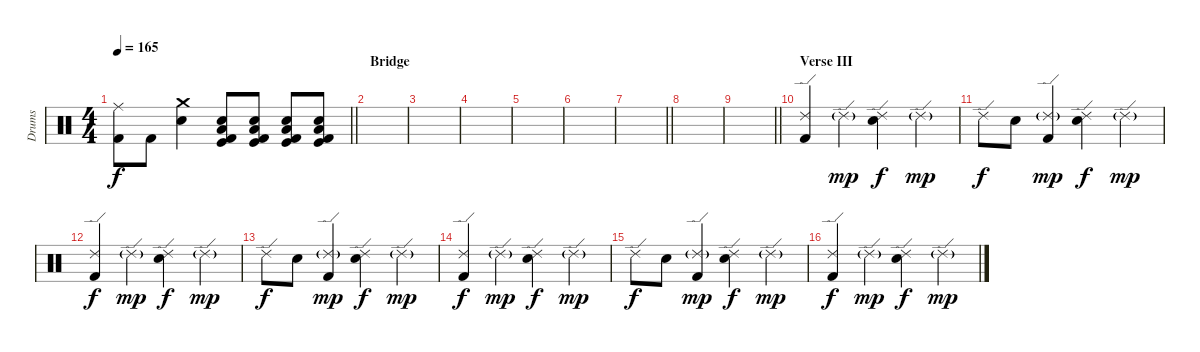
\track ("Drums" "Drums") {instrument percussion}
\staff {score}
\articulation defaults
\ts (4 4)
\tempo 165
\clef neutral
\barLineRight lightlight
\ks c
("Ride (middle)" "Kick (hit) 2").8{dy f} "Kick (hit) 2".8 ("Crash medium (hit)" "Electric Snare (hit)").4 ("Low Floor Tom (hit)" "Electric Snare (hit)" "Kick (hit)" "Kick (hit) 2").8 ("Low Floor Tom (hit)" "Electric Snare (hit)" "Kick (hit)" "Kick (hit) 2").8 ("Low Floor Tom (hit)" "Electric Snare (hit)" "Kick (hit)" "Kick (hit) 2").8 ("Low Floor Tom (hit)" "Electric Snare (hit)" "Kick (hit)" "Kick (hit) 2").8 |
\section ("" "Bridge")
|
|
|
|
|
\barLineRight lightlight
|
|
\barLineRight lightlight
|
\section ("" "Verse III")
("Ride (edge) 2" "Kick (hit) 2").4 "Ride (edge) 2"{g}.4{dy mp} ("Ride (edge) 2" "Electric Snare (hit)").4{dy f} "Ride (edge) 2"{g}.4{dy mp} |
"Ride (edge) 2".8{dy f} "Electric Snare (hit)".8 ("Ride (edge) 2"{g} "Kick (hit) 2").4{dy mp} ("Ride (edge) 2" "Electric Snare (hit)").4{dy f} "Ride (edge) 2"{g}.4{dy mp} |
("Ride (edge) 2" "Kick (hit) 2").4{dy f} "Ride (edge) 2"{g}.4{dy mp} ("Ride (edge) 2" "Electric Snare (hit)").4{dy f} "Ride (edge) 2"{g}.4{dy mp} |
"Ride (edge) 2".8{dy f} "Electric Snare (hit)".8 ("Ride (edge) 2"{g} "Kick (hit) 2").4{dy mp} ("Ride (edge) 2" "Electric Snare (hit)").4{dy f} "Ride (edge) 2"{g}.4{dy mp} |
("Ride (edge) 2" "Kick (hit) 2").4{dy f} "Ride (edge) 2"{g}.4{dy mp} ("Ride (edge) 2" "Electric Snare (hit)").4{dy f} "Ride (edge) 2"{g}.4{dy mp} |
"Ride (edge) 2".8{dy f} "Electric Snare (hit)".8 ("Ride (edge) 2"{g} "Kick (hit) 2").4{dy mp} ("Ride (edge) 2" "Electric Snare (hit)").4{dy f} "Ride (edge) 2"{g}.4{dy mp} |
("Ride (edge) 2" "Kick (hit) 2").4{dy f} "Ride (edge) 2"{g}.4{dy mp} ("Ride (edge) 2" "Electric Snare (hit)").4{dy f} "Ride (edge) 2"{g}.4{dy mp}
